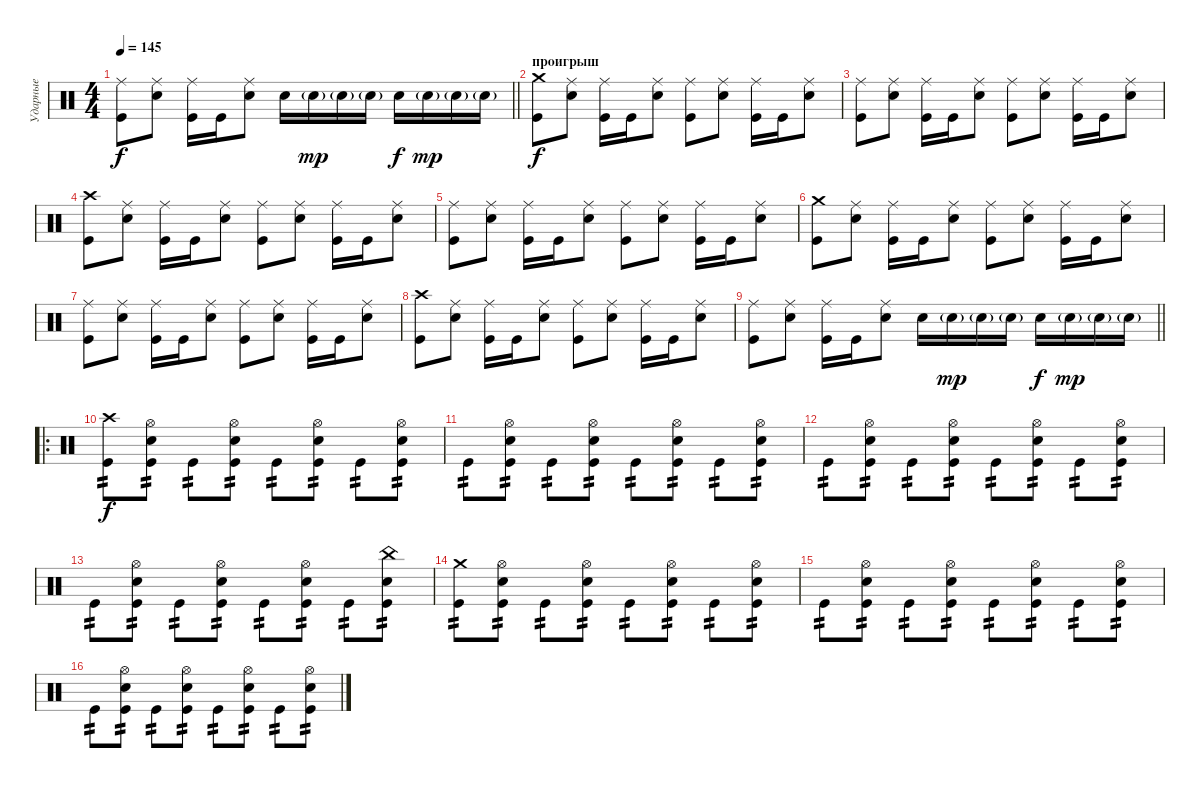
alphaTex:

\track ("Ударные" "Ударные") {instrument percussion}
\staff {score}
\articulation defaults
\ts (4 4)
\tempo 145
\clef neutral
\barLineRight lightlight
\ks c
("Ride (middle)" "Kick (hit)").8{dy f} ("Ride (middle)" "Electric Snare (hit)").8 ("Ride (middle)" "Kick (hit)").16 "Kick (hit)".16 ("Ride (middle)" "Electric Snare (hit)").8 "Electric Snare (hit)".16 "Electric Snare (hit)"{g}.16{dy mp} "Electric Snare (hit)"{g}.16 "Electric Snare (hit)"{g}.16 "Electric Snare (hit)".16{dy f} "Electric Snare (hit)"{g}.16{dy mp} "Electric Snare (hit)"{g}.16 "Electric Snare (hit)"{g}.16 |
\section ("" "проигрыш")
("Crash medium (hit)" "Kick (hit)").8{dy f} ("Ride (middle)" "Electric Snare (hit)").8 ("Ride (middle)" "Kick (hit)").16 "Kick (hit)".16 ("Ride (middle)" "Electric Snare (hit)").8 ("Ride (middle)" "Kick (hit)").8 ("Ride (middle)" "Electric Snare (hit)").8 ("Ride (middle)" "Kick (hit)").16 "Kick (hit)".16 ("Ride (middle)" "Electric Snare (hit)").8 |
("Ride (middle)" "Kick (hit)").8 ("Ride (middle)" "Electric Snare (hit)").8 ("Ride (middle)" "Kick (hit)").16 "Kick (hit)".16 ("Ride (middle)" "Electric Snare (hit)").8 ("Ride (middle)" "Kick (hit)").8 ("Ride (middle)" "Electric Snare (hit)").8 ("Ride (middle)" "Kick (hit)").16 "Kick (hit)".16 ("Ride (middle)" "Electric Snare (hit)").8 |
("Crash high (hit)" "Kick (hit)").8 ("Ride (middle)" "Electric Snare (hit)").8 ("Ride (middle)" "Kick (hit)").16 "Kick (hit)".16 ("Ride (middle)" "Electric Snare (hit)").8 ("Ride (middle)" "Kick (hit)").8 ("Ride (middle)" "Electric Snare (hit)").8 ("Ride (middle)" "Kick (hit)").16 "Kick (hit)".16 ("Ride (middle)" "Electric Snare (hit)").8 |
("Ride (middle)" "Kick (hit)").8 ("Ride (middle)" "Electric Snare (hit)").8 ("Ride (middle)" "Kick (hit)").16 "Kick (hit)".16 ("Ride (middle)" "Electric Snare (hit)").8 ("Ride (middle)" "Kick (hit)").8 ("Ride (middle)" "Electric Snare (hit)").8 ("Ride (middle)" "Kick (hit)").16 "Kick (hit)".16 ("Ride (middle)" "Electric Snare (hit)").8 |
("Crash medium (hit)" "Kick (hit)").8 ("Ride (middle)" "Electric Snare (hit)").8 ("Ride (middle)" "Kick (hit)").16 "Kick (hit)".16 ("Ride (middle)" "Electric Snare (hit)").8 ("Ride (middle)" "Kick (hit)").8 ("Ride (middle)" "Electric Snare (hit)").8 ("Ride (middle)" "Kick (hit)").16 "Kick (hit)".16 ("Ride (middle)" "Electric Snare (hit)").8 |
("Ride (middle)" "Kick (hit)").8 ("Ride (middle)" "Electric Snare (hit)").8 ("Ride (middle)" "Kick (hit)").16 "Kick (hit)".16 ("Ride (middle)" "Electric Snare (hit)").8 ("Ride (middle)" "Kick (hit)").8 ("Ride (middle)" "Electric Snare (hit)").8 ("Ride (middle)" "Kick (hit)").16 "Kick (hit)".16 ("Ride (middle)" "Electric Snare (hit)").8 |
("Crash high (hit)" "Kick (hit)").8 ("Ride (middle)" "Electric Snare (hit)").8 ("Ride (middle)" "Kick (hit)").16 "Kick (hit)".16 ("Ride (middle)" "Electric Snare (hit)").8 ("Ride (middle)" "Kick (hit)").8 ("Ride (middle)" "Electric Snare (hit)").8 ("Ride (middle)" "Kick (hit)").16 "Kick (hit)".16 ("Ride (middle)" "Electric Snare (hit)").8 |
\barLineRight lightlight
("Ride (middle)" "Kick (hit)").8 ("Ride (middle)" "Electric Snare (hit)").8 ("Ride (middle)" "Kick (hit)").16 "Kick (hit)".16 ("Ride (middle)" "Electric Snare (hit)").8 "Electric Snare (hit)".16 "Electric Snare (hit)"{g}.16{dy mp} "Electric Snare (hit)"{g}.16 "Electric Snare (hit)"{g}.16 "Electric Snare (hit)".16{dy f} "Electric Snare (hit)"{g}.16{dy mp} "Electric Snare (hit)"{g}.16 "Electric Snare (hit)"{g}.16 |
\ro
("Crash high (hit)" "Kick (hit)").8{tp 2 dy f} ("Hi-Hat (open)" "Electric Snare (hit)" "Kick (hit)").8{tp 2} "Kick (hit)".8{tp 2} ("Hi-Hat (open)" "Electric Snare (hit)" "Kick (hit)").8{tp 2} "Kick (hit)".8{tp 2} ("Hi-Hat (open)" "Electric Snare (hit)" "Kick (hit)").8{tp 2} "Kick (hit)".8{tp 2} ("Hi-Hat (open)" "Electric Snare (hit)" "Kick (hit)").8{tp 2} |
"Kick (hit)".8{tp 2} ("Hi-Hat (open)" "Electric Snare (hit)" "Kick (hit)").8{tp 2} "Kick (hit)".8{tp 2} ("Hi-Hat (open)" "Electric Snare (hit)" "Kick (hit)").8{tp 2} "Kick (hit)".8{tp 2} ("Hi-Hat (open)" "Electric Snare (hit)" "Kick (hit)").8{tp 2} "Kick (hit)".8{tp 2} ("Hi-Hat (open)" "Electric Snare (hit)" "Kick (hit)").8{tp 2} |
"Kick (hit)".8{tp 2} ("Hi-Hat (open)" "Electric Snare (hit)" "Kick (hit)").8{tp 2} "Kick (hit)".8{tp 2} ("Hi-Hat (open)" "Electric Snare (hit)" "Kick (hit)").8{tp 2} "Kick (hit)".8{tp 2} ("Hi-Hat (open)" "Electric Snare (hit)" "Kick (hit)").8{tp 2} "Kick (hit)".8{tp 2} ("Hi-Hat (open)" "Electric Snare (hit)" "Kick (hit)").8{tp 2} |
"Kick (hit)".8{tp 2} ("Hi-Hat (open)" "Electric Snare (hit)" "Kick (hit)").8{tp 2} "Kick (hit)".8{tp 2} ("Hi-Hat (open)" "Electric Snare (hit)" "Kick (hit)").8{tp 2} "Kick (hit)".8{tp 2} ("Hi-Hat (open)" "Electric Snare (hit)" "Kick (hit)").8{tp 2} "Kick (hit)".8{tp 2} ("China (hit)" "Electric Snare (hit)" "Kick (hit)").8{tp 2} |
("Crash medium (hit)" "Kick (hit)").8{tp 2} ("Hi-Hat (open)" "Electric Snare (hit)" "Kick (hit)").8{tp 2} "Kick (hit)".8{tp 2} ("Hi-Hat (open)" "Electric Snare (hit)" "Kick (hit)").8{tp 2} "Kick (hit)".8{tp 2} ("Hi-Hat (open)" "Electric Snare (hit)" "Kick (hit)").8{tp 2} "Kick (hit)".8{tp 2} ("Hi-Hat (open)" "Electric Snare (hit)" "Kick (hit)").8{tp 2} |
"Kick (hit)".8{tp 2} ("Hi-Hat (open)" "Electric Snare (hit)" "Kick (hit)").8{tp 2} "Kick (hit)".8{tp 2} ("Hi-Hat (open)" "Electric Snare (hit)" "Kick (hit)").8{tp 2} "Kick (hit)".8{tp 2} ("Hi-Hat (open)" "Electric Snare (hit)" "Kick (hit)").8{tp 2} "Kick (hit)".8{tp 2} ("Hi-Hat (open)" "Electric Snare (hit)" "Kick (hit)").8{tp 2} |
"Kick (hit)".8{tp 2} ("Hi-Hat (open)" "Electric Snare (hit)" "Kick (hit)").8{tp 2} "Kick (hit)".8{tp 2} ("Hi-Hat (open)" "Electric Snare (hit)" "Kick (hit)").8{tp 2} "Kick (hit)".8{tp 2} ("Hi-Hat (open)" "Electric Snare (hit)" "Kick (hit)").8{tp 2} "Kick (hit)".8{tp 2} ("Hi-Hat (open)" "Electric Snare (hit)" "Kick (hit)").8{tp 2}
